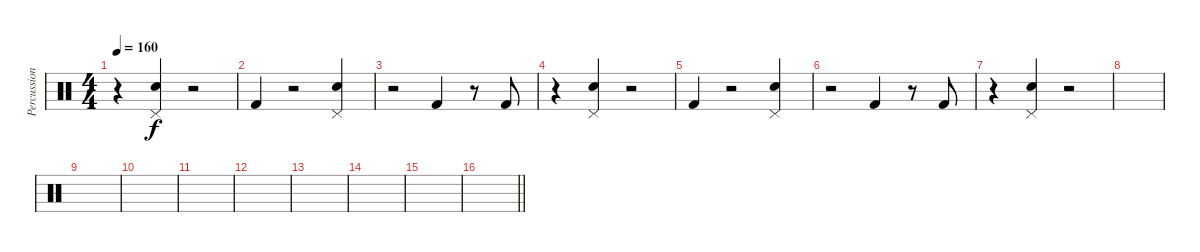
\track ("Percussions" "Percussion") {instrument percussion}
\staff {score}
\articulation defaults
\ts (4 4)
\tempo 160
\clef neutral
\ks c
r.4{dy f} ("Pedal Hi-Hat (hit)" "Electric Snare (hit)").4 r.2 |
"Kick (hit) 2".4 r.2 ("Pedal Hi-Hat (hit)" "Electric Snare (hit)").4 |
r.2 "Kick (hit) 2".4 r.8 "Kick (hit) 2".8 |
r.4 ("Pedal Hi-Hat (hit)" "Electric Snare (hit)").4 r.2 |
"Kick (hit) 2".4 r.2 ("Pedal Hi-Hat (hit)" "Electric Snare (hit)").4 |
r.2 "Kick (hit) 2".4 r.8 "Kick (hit) 2".8 |
r.4 ("Pedal Hi-Hat (hit)" "Electric Snare (hit)").4 r.2 |
|
|
|
|
|
|
|
|
\barLineRight lightlight
